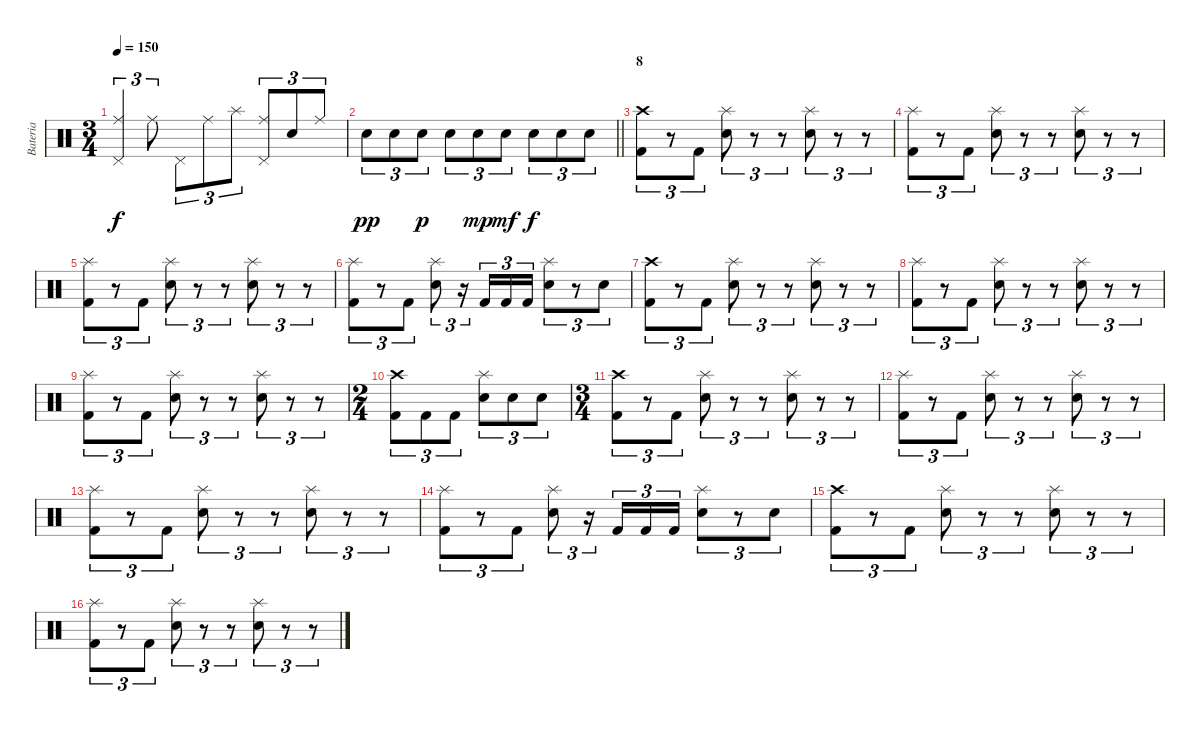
\track ("Bateria" "Bateria") {instrument percussion}
\staff {score}
\articulation defaults
\ts (3 4)
\tempo 150
\clef neutral
\ks c
("Ride (middle)" "Pedal Hi-Hat (hit)").4{tu (3 2) dy f} "Ride (middle)".8{tu (3 2)} "Pedal Hi-Hat (hit)".8{tu (3 2)} "Ride (middle)".8{tu (3 2)} "Splash (hit)".8{tu (3 2)} ("Ride (middle)" "Pedal Hi-Hat (hit)").8{tu (3 2)} "Snare (hit)".8{tu (3 2)} "Ride (middle)".8{tu (3 2)} |
\barLineRight lightlight "Electric Snare (hit)".8{tu (3 2) dy pp} "Electric Snare (hit)".8{tu (3 2)} "Electric Snare (hit)".8{tu (3 2) dy p} "Electric Snare (hit)".8{tu (3 2)} "Electric Snare (hit)".8{tu (3 2) dy mp} "Electric Snare (hit)".8{tu (3 2) dy mf} "Electric Snare (hit)".8{tu (3 2) dy f} "Electric Snare (hit)".8{tu (3 2)} "Electric Snare (hit)".8{tu (3 2)}
|
\section ("" "8")
("Crash high (hit)" "Kick (hit) 2").8{tu (3 2)} r.8{tu (3 2)} "Kick (hit) 2".8{tu (3 2)} ("Splash (hit)" "Snare (hit)").8{tu (3 2)} r.8{tu (3 2)} r.8{tu (3 2)} ("Splash (hit)" "Electric Snare (hit)").8{tu (3 2)} r.8{tu (3 2)} r.8{tu (3 2)} |
("Splash (hit)" "Kick (hit) 2").8{tu (3 2)} r.8{tu (3 2)} "Kick (hit) 2".8{tu (3 2)} ("Splash (hit)" "Snare (hit)").8{tu (3 2)} r.8{tu (3 2)} r.8{tu (3 2)} ("Splash (hit)" "Electric Snare (hit)").8{tu (3 2)} r.8{tu (3 2)} r.8{tu (3 2)} |
("Splash (hit)" "Kick (hit) 2").8{tu (3 2)} r.8{tu (3 2)} "Kick (hit) 2".8{tu (3 2)} ("Splash (hit)" "Snare (hit)").8{tu (3 2)} r.8{tu (3 2)} r.8{tu (3 2)} ("Splash (hit)" "Electric Snare (hit)").8{tu (3 2)} r.8{tu (3 2)} r.8{tu (3 2)} |
("Splash (hit)" "Kick (hit) 2").8{tu (3 2)} r.8{tu (3 2)} "Kick (hit) 2".8{tu (3 2)} ("Splash (hit)" "Snare (hit)").8{tu (3 2)} r.16{tu (3 2)} "Kick (hit) 2".16{tu (3 2)} "Kick (hit) 2".16{tu (3 2)} "Kick (hit) 2".16{tu (3 2)} ("Splash (hit)" "Electric Snare (hit)").8{tu (3 2)} r.8{tu (3 2)} "Snare (hit)".8{tu (3 2)} |
("Crash high (hit)" "Kick (hit) 2").8{tu (3 2)} r.8{tu (3 2)} "Kick (hit) 2".8{tu (3 2)} ("Splash (hit)" "Snare (hit)").8{tu (3 2)} r.8{tu (3 2)} r.8{tu (3 2)} ("Splash (hit)" "Electric Snare (hit)").8{tu (3 2)} r.8{tu (3 2)} r.8{tu (3 2)} |
("Splash (hit)" "Kick (hit) 2").8{tu (3 2)} r.8{tu (3 2)} "Kick (hit) 2".8{tu (3 2)} ("Splash (hit)" "Snare (hit)").8{tu (3 2)} r.8{tu (3 2)} r.8{tu (3 2)} ("Splash (hit)" "Electric Snare (hit)").8{tu (3 2)} r.8{tu (3 2)} r.8{tu (3 2)} |
("Splash (hit)" "Kick (hit) 2").8{tu (3 2)} r.8{tu (3 2)} "Kick (hit) 2".8{tu (3 2)} ("Splash (hit)" "Snare (hit)").8{tu (3 2)} r.8{tu (3 2)} r.8{tu (3 2)} ("Splash (hit)" "Electric Snare (hit)").8{tu (3 2)} r.8{tu (3 2)} r.8{tu (3 2)} |
\ts (2 4)
("Crash high (hit)" "Kick (hit) 2").8{tu (3 2)} "Kick (hit) 2".8{tu (3 2)} "Kick (hit) 2".8{tu (3 2)} ("Splash (hit)" "Electric Snare (hit)").8{tu (3 2)} "Snare (hit)".8{tu (3 2)} "Snare (hit)".8{tu (3 2)} |
\ts (3 4)
("Crash high (hit)" "Kick (hit) 2").8{tu (3 2)} r.8{tu (3 2)} "Kick (hit) 2".8{tu (3 2)} ("Splash (hit)" "Snare (hit)").8{tu (3 2)} r.8{tu (3 2)} r.8{tu (3 2)} ("Splash (hit)" "Electric Snare (hit)").8{tu (3 2)} r.8{tu (3 2)} r.8{tu (3 2)} |
("Splash (hit)" "Kick (hit) 2").8{tu (3 2)} r.8{tu (3 2)} "Kick (hit) 2".8{tu (3 2)} ("Splash (hit)" "Snare (hit)").8{tu (3 2)} r.8{tu (3 2)} r.8{tu (3 2)} ("Splash (hit)" "Electric Snare (hit)").8{tu (3 2)} r.8{tu (3 2)} r.8{tu (3 2)} |
("Splash (hit)" "Kick (hit) 2").8{tu (3 2)} r.8{tu (3 2)} "Kick (hit) 2".8{tu (3 2)} ("Splash (hit)" "Snare (hit)").8{tu (3 2)} r.8{tu (3 2)} r.8{tu (3 2)} ("Splash (hit)" "Electric Snare (hit)").8{tu (3 2)} r.8{tu (3 2)} r.8{tu (3 2)} |
("Splash (hit)" "Kick (hit) 2").8{tu (3 2)} r.8{tu (3 2)} "Kick (hit) 2".8{tu (3 2)} ("Splash (hit)" "Snare (hit)").8{tu (3 2)} r.16{tu (3 2)} "Kick (hit) 2".16{tu (3 2)} "Kick (hit) 2".16{tu (3 2)} "Kick (hit) 2".16{tu (3 2)} ("Splash (hit)" "Electric Snare (hit)").8{tu (3 2)} r.8{tu (3 2)} "Snare (hit)".8{tu (3 2)} |
("Crash high (hit)" "Kick (hit) 2").8{tu (3 2)} r.8{tu (3 2)} "Kick (hit) 2".8{tu (3 2)} ("Splash (hit)" "Snare (hit)").8{tu (3 2)} r.8{tu (3 2)} r.8{tu (3 2)} ("Splash (hit)" "Electric Snare (hit)").8{tu (3 2)} r.8{tu (3 2)} r.8{tu (3 2)} |
("Splash (hit)" "Kick (hit) 2").8{tu (3 2)} r.8{tu (3 2)} "Kick (hit) 2".8{tu (3 2)} ("Splash (hit)" "Snare (hit)").8{tu (3 2)} r.8{tu (3 2)} r.8{tu (3 2)} ("Splash (hit)" "Electric Snare (hit)").8{tu (3 2)} r.8{tu (3 2)} r.8{tu (3 2)}
